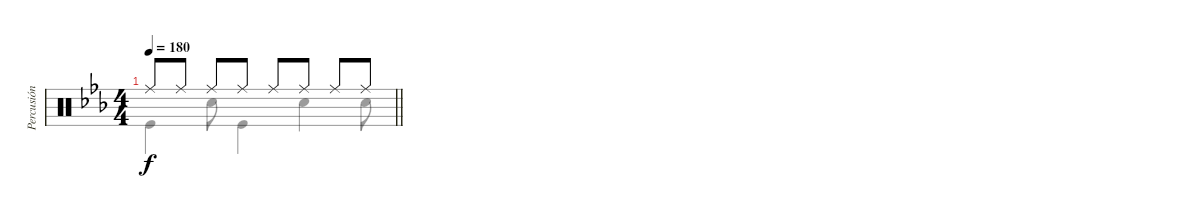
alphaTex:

\track ("Percusión" "Percusión") {instrument percussion}
\staff {score}
\articulation defaults
\voice
\ts (4 4)
\tempo 180
\clef neutral
\barLineRight lightlight
\ks eb "Ride (middle)".8{dy f} "Ride (middle)".8 "Ride (middle)".8 "Ride (middle)".8 "Ride (middle)".8 "Ride (middle)".8 "Ride (middle)".8 "Ride (middle)".8
\voice
\clef neutral
\barLineRight lightlight
\ks eb "Kick (hit)".4{dy f} "Snare (hit) 2".8 "Kick (hit)".4 "Snare (hit) 2".4 "Snare (hit) 2".8
